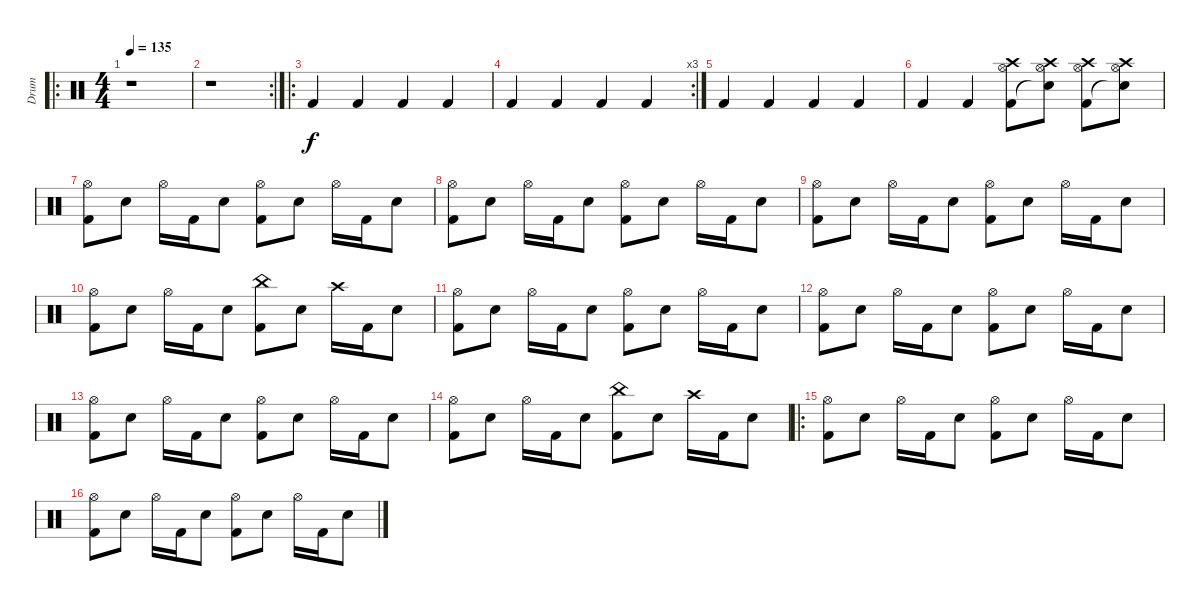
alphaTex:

\track ("Drum" "Drum") {instrument percussion}
\staff {score}
\articulation defaults
\ro
\ts (4 4)
\tempo 135
\clef neutral
\ks c
r.1{dy f} |
\rc 2
r.1 |
\ro "Kick (hit) 2".4 "Kick (hit) 2".4 "Kick (hit) 2".4 "Kick (hit) 2".4
|
\rc 3 "Kick (hit) 2".4 "Kick (hit) 2".4 "Kick (hit) 2".4 "Kick (hit) 2".4
|
"Kick (hit) 2".4 "Kick (hit) 2".4 "Kick (hit) 2".4 "Kick (hit) 2".4 |
"Kick (hit) 2".4 "Kick (hit) 2".4 ("Crash high (hit)" "Hi-Hat (open)" "Kick (hit) 2").8 ("Crash high (hit)" "Hi-Hat (open)" "Snare (hit)"{t}).8 ("Crash high (hit)" "Hi-Hat (open)" "Kick (hit) 2").8 ("Crash high (hit)" "Hi-Hat (open)" "Snare (hit)"{t}).8 |
("Hi-Hat (open)" "Kick (hit) 2").8 "Snare (hit) 2".8 "Hi-Hat (open)".16 "Kick (hit) 2".16 "Snare (hit) 2".8 ("Hi-Hat (open)" "Kick (hit) 2").8 "Snare (hit) 2".8 "Hi-Hat (open)".16 "Kick (hit) 2".16 "Snare (hit) 2".8 |
("Hi-Hat (open)" "Kick (hit) 2").8 "Snare (hit) 2".8 "Hi-Hat (open)".16 "Kick (hit) 2".16 "Snare (hit) 2".8 ("Hi-Hat (open)" "Kick (hit) 2").8 "Snare (hit) 2".8 "Hi-Hat (open)".16 "Kick (hit) 2".16 "Snare (hit) 2".8 |
("Hi-Hat (open)" "Kick (hit) 2").8 "Snare (hit) 2".8 "Hi-Hat (open)".16 "Kick (hit) 2".16 "Snare (hit) 2".8 ("Hi-Hat (open)" "Kick (hit) 2").8 "Snare (hit) 2".8 "Hi-Hat (open)".16 "Kick (hit) 2".16 "Snare (hit) 2".8 |
("Hi-Hat (open)" "Kick (hit) 2").8 "Snare (hit) 2".8 "Hi-Hat (open)".16 "Kick (hit) 2".16 "Snare (hit) 2".8 ("China (hit)" "Kick (hit) 2").8 "Snare (hit) 2".8 "Crash high (hit)".16 "Kick (hit) 2".16 "Snare (hit) 2".8 |
("Hi-Hat (open)" "Kick (hit) 2").8 "Snare (hit) 2".8 "Hi-Hat (open)".16 "Kick (hit) 2".16 "Snare (hit) 2".8 ("Hi-Hat (open)" "Kick (hit) 2").8 "Snare (hit) 2".8 "Hi-Hat (open)".16 "Kick (hit) 2".16 "Snare (hit) 2".8 |
("Hi-Hat (open)" "Kick (hit) 2").8 "Snare (hit) 2".8 "Hi-Hat (open)".16 "Kick (hit) 2".16 "Snare (hit) 2".8 ("Hi-Hat (open)" "Kick (hit) 2").8 "Snare (hit) 2".8 "Hi-Hat (open)".16 "Kick (hit) 2".16 "Snare (hit) 2".8 |
("Hi-Hat (open)" "Kick (hit) 2").8 "Snare (hit) 2".8 "Hi-Hat (open)".16 "Kick (hit) 2".16 "Snare (hit) 2".8 ("Hi-Hat (open)" "Kick (hit) 2").8 "Snare (hit) 2".8 "Hi-Hat (open)".16 "Kick (hit) 2".16 "Snare (hit) 2".8 |
("Hi-Hat (open)" "Kick (hit) 2").8 "Snare (hit) 2".8 "Hi-Hat (open)".16 "Kick (hit) 2".16 "Snare (hit) 2".8 ("China (hit)" "Kick (hit) 2").8 "Snare (hit) 2".8 "Crash high (hit)".16 "Kick (hit) 2".16 "Snare (hit) 2".8 |
\ro
("Hi-Hat (open)" "Kick (hit) 2").8 "Snare (hit) 2".8 "Hi-Hat (open)".16 "Kick (hit) 2".16 "Snare (hit) 2".8 ("Hi-Hat (open)" "Kick (hit) 2").8 "Snare (hit) 2".8 "Hi-Hat (open)".16 "Kick (hit) 2".16 "Snare (hit) 2".8 |
("Hi-Hat (open)" "Kick (hit) 2").8 "Snare (hit) 2".8 "Hi-Hat (open)".16 "Kick (hit) 2".16 "Snare (hit) 2".8 ("Hi-Hat (open)" "Kick (hit) 2").8 "Snare (hit) 2".8 "Hi-Hat (open)".16 "Kick (hit) 2".16 "Snare (hit) 2".8
